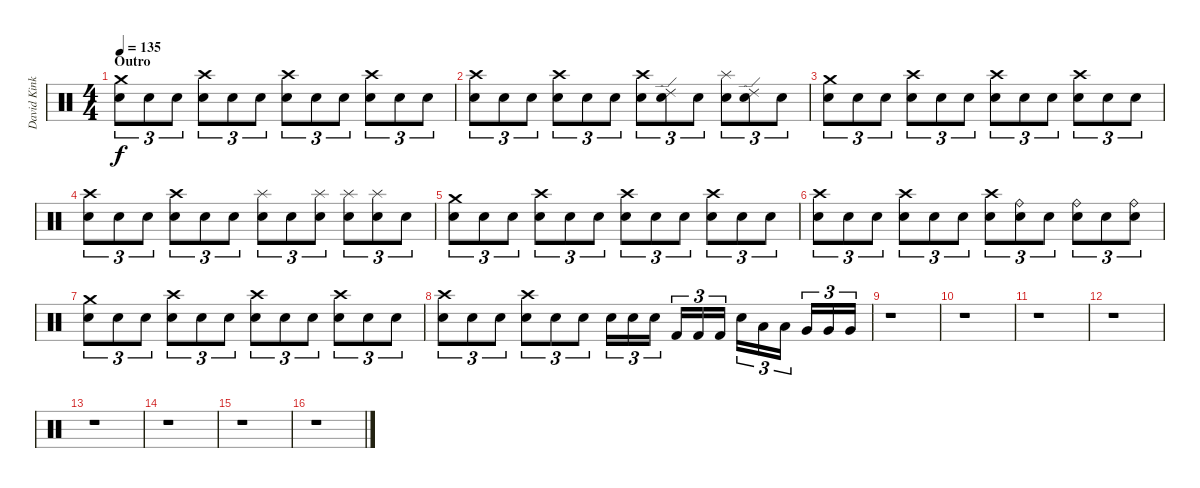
\track ("David Kinkade" "David Kink") {instrument percussion}
\staff {score}
\articulation defaults
\ts (4 4)
\section ("" "Outro")
\tempo 135
\clef neutral
\ks c
("Crash medium (hit)" "Snare (hit) 2").8{tu (3 2) dy f} "Snare (hit) 2".8{tu (3 2)} "Snare (hit) 2".8{tu (3 2)} ("Crash high (hit)" "Snare (hit) 2").8{tu (3 2)} "Snare (hit) 2".8{tu (3 2)} "Snare (hit) 2".8{tu (3 2)} ("Crash high (hit)" "Snare (hit) 2").8{tu (3 2)} "Snare (hit) 2".8{tu (3 2)} "Snare (hit) 2".8{tu (3 2)} ("Crash high (hit)" "Snare (hit) 2").8{tu (3 2)} "Snare (hit) 2".8{tu (3 2)} "Snare (hit) 2".8{tu (3 2)} |
("Crash high (hit)" "Snare (hit) 2").8{tu (3 2)} "Snare (hit) 2".8{tu (3 2)} "Snare (hit) 2".8{tu (3 2)} ("Crash high (hit)" "Snare (hit) 2").8{tu (3 2)} "Snare (hit) 2".8{tu (3 2)} "Snare (hit) 2".8{tu (3 2)} ("Crash high (hit)" "Snare (hit) 2").8{tu (3 2)} ("Ride (edge) 2" "Snare (hit) 2").8{tu (3 2)} "Snare (hit) 2".8{tu (3 2)} ("Splash (hit)" "Snare (hit) 2").8{tu (3 2)} ("Ride (edge) 2" "Snare (hit) 2").8{tu (3 2)} "Snare (hit) 2".8{tu (3 2)} |
("Crash medium (hit)" "Snare (hit) 2").8{tu (3 2)} "Snare (hit) 2".8{tu (3 2)} "Snare (hit) 2".8{tu (3 2)} ("Crash high (hit)" "Snare (hit) 2").8{tu (3 2)} "Snare (hit) 2".8{tu (3 2)} "Snare (hit) 2".8{tu (3 2)} ("Crash high (hit)" "Snare (hit) 2").8{tu (3 2)} "Snare (hit) 2".8{tu (3 2)} "Snare (hit) 2".8{tu (3 2)} ("Crash high (hit)" "Snare (hit) 2").8{tu (3 2)} "Snare (hit) 2".8{tu (3 2)} "Snare (hit) 2".8{tu (3 2)} |
("Crash high (hit)" "Snare (hit) 2").8{tu (3 2)} "Snare (hit) 2".8{tu (3 2)} "Snare (hit) 2".8{tu (3 2)} ("Crash high (hit)" "Snare (hit) 2").8{tu (3 2)} "Snare (hit) 2".8{tu (3 2)} "Snare (hit) 2".8{tu (3 2)} ("Splash (hit)" "Snare (hit) 2").8{tu (3 2)} "Snare (hit) 2".8{tu (3 2)} ("Splash (hit)" "Snare (hit) 2").8{tu (3 2)} ("Splash (hit)" "Snare (hit) 2").8{tu (3 2)} ("Splash (hit)" "Snare (hit) 2").8{tu (3 2)} "Snare (hit) 2".8{tu (3 2)} |
("Crash medium (hit)" "Snare (hit) 2").8{tu (3 2)} "Snare (hit) 2".8{tu (3 2)} "Snare (hit) 2".8{tu (3 2)} ("Crash high (hit)" "Snare (hit) 2").8{tu (3 2)} "Snare (hit) 2".8{tu (3 2)} "Snare (hit) 2".8{tu (3 2)} ("Crash high (hit)" "Snare (hit) 2").8{tu (3 2)} "Snare (hit) 2".8{tu (3 2)} "Snare (hit) 2".8{tu (3 2)} ("Crash high (hit)" "Snare (hit) 2").8{tu (3 2)} "Snare (hit) 2".8{tu (3 2)} "Snare (hit) 2".8{tu (3 2)} |
("Crash high (hit)" "Snare (hit) 2").8{tu (3 2)} "Snare (hit) 2".8{tu (3 2)} "Snare (hit) 2".8{tu (3 2)} ("Crash high (hit)" "Snare (hit) 2").8{tu (3 2)} "Snare (hit) 2".8{tu (3 2)} "Snare (hit) 2".8{tu (3 2)} ("Crash high (hit)" "Snare (hit) 2").8{tu (3 2)} ("Ride (bell)" "Snare (hit) 2").8{tu (3 2)} "Snare (hit) 2".8{tu (3 2)} ("Ride (bell)" "Snare (hit) 2").8{tu (3 2)} "Snare (hit) 2".8{tu (3 2)} ("Ride (bell)" "Snare (hit) 2").8{tu (3 2)} |
("Crash medium (hit)" "Snare (hit) 2").8{tu (3 2)} "Snare (hit) 2".8{tu (3 2)} "Snare (hit) 2".8{tu (3 2)} ("Crash high (hit)" "Snare (hit) 2").8{tu (3 2)} "Snare (hit) 2".8{tu (3 2)} "Snare (hit) 2".8{tu (3 2)} ("Crash high (hit)" "Snare (hit) 2").8{tu (3 2)} "Snare (hit) 2".8{tu (3 2)} "Snare (hit) 2".8{tu (3 2)} ("Crash high (hit)" "Snare (hit) 2").8{tu (3 2)} "Snare (hit) 2".8{tu (3 2)} "Snare (hit) 2".8{tu (3 2)} |
("Crash high (hit)" "Snare (hit) 2").8{tu (3 2)} "Snare (hit) 2".8{tu (3 2)} "Snare (hit) 2".8{tu (3 2)} ("Crash high (hit)" "Snare (hit) 2").8{tu (3 2)} "Snare (hit) 2".8{tu (3 2)} "Snare (hit) 2".8{tu (3 2)} "Snare (hit) 2".16{tu (3 2)} "Snare (hit) 2".16{tu (3 2)} "Snare (hit) 2".16{tu (3 2) beam splitsecondary} "Kick (hit) 2".16{tu (3 2)} "Kick (hit) 2".16{tu (3 2)} "Kick (hit) 2".16{tu (3 2)} "Snare (hit) 2".16{tu (3 2)} "Low Tom (hit)".16{tu (3 2)} "Low Tom (hit)".16{tu (3 2) beam splitsecondary} "Very Low Tom (hit)".16{tu (3 2)} "Very Low Tom (hit)".16{tu (3 2)} "Very Low Tom (hit)".16{tu (3 2)} |
r.1 |
r.1 |
r.1 |
r.1 |
r.1 |
r.1 |
r.1 |
r.1
